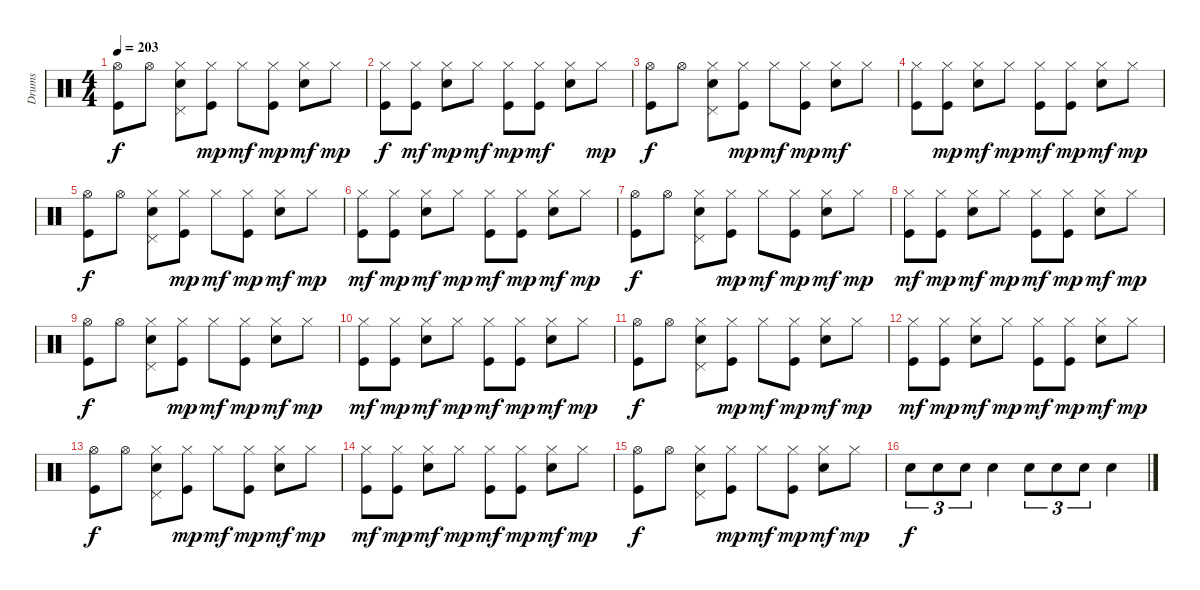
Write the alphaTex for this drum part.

\track ("Drums" "Drums") {instrument percussion}
\staff {score}
\articulation defaults
\ts (4 4)
\tempo 203
\clef neutral
\ks c
("Hi-Hat (open)" "Kick (hit)").8{dy f} "Hi-Hat (open)".8 ("Hi-Hat (closed)" "Pedal Hi-Hat (hit)" "Snare (hit) 2").8 ("Hi-Hat (closed)" "Kick (hit)").8{dy mp} "Hi-Hat (closed)".8{dy mf} ("Hi-Hat (closed)" "Kick (hit)").8{dy mp} ("Hi-Hat (closed)" "Snare (hit) 2").8{dy mf} "Hi-Hat (closed)".8{dy mp} |
("Hi-Hat (closed)" "Kick (hit)").8{dy f} ("Hi-Hat (closed)" "Kick (hit)").8{dy mf} ("Hi-Hat (closed)" "Snare (hit) 2").8{dy mp} "Hi-Hat (closed)".8{dy mf} ("Hi-Hat (closed)" "Kick (hit)").8{dy mp} ("Hi-Hat (closed)" "Kick (hit)").8{dy mf} ("Hi-Hat (closed)" "Snare (hit) 2").8 "Hi-Hat (closed)".8{dy mp} |
("Hi-Hat (open)" "Kick (hit)").8{dy f} "Hi-Hat (open)".8 ("Hi-Hat (closed)" "Pedal Hi-Hat (hit)" "Snare (hit) 2").8 ("Hi-Hat (closed)" "Kick (hit)").8{dy mp} "Hi-Hat (closed)".8{dy mf} ("Hi-Hat (closed)" "Kick (hit)").8{dy mp} ("Hi-Hat (closed)" "Snare (hit) 2").8{dy mf} "Hi-Hat (closed)".8 |
("Hi-Hat (closed)" "Kick (hit)").8 ("Hi-Hat (closed)" "Kick (hit)").8{dy mp} ("Hi-Hat (closed)" "Snare (hit) 2").8{dy mf} "Hi-Hat (closed)".8{dy mp} ("Hi-Hat (closed)" "Kick (hit)").8{dy mf} ("Hi-Hat (closed)" "Kick (hit)").8{dy mp} ("Hi-Hat (closed)" "Snare (hit) 2").8{dy mf} "Hi-Hat (closed)".8{dy mp} |
("Hi-Hat (open)" "Kick (hit)").8{dy f} "Hi-Hat (open)".8 ("Hi-Hat (closed)" "Pedal Hi-Hat (hit)" "Snare (hit) 2").8 ("Hi-Hat (closed)" "Kick (hit)").8{dy mp} "Hi-Hat (closed)".8{dy mf} ("Hi-Hat (closed)" "Kick (hit)").8{dy mp} ("Hi-Hat (closed)" "Snare (hit) 2").8{dy mf} "Hi-Hat (closed)".8{dy mp} |
("Hi-Hat (closed)" "Kick (hit)").8{dy mf} ("Hi-Hat (closed)" "Kick (hit)").8{dy mp} ("Hi-Hat (closed)" "Snare (hit) 2").8{dy mf} "Hi-Hat (closed)".8{dy mp} ("Hi-Hat (closed)" "Kick (hit)").8{dy mf} ("Hi-Hat (closed)" "Kick (hit)").8{dy mp} ("Hi-Hat (closed)" "Snare (hit) 2").8{dy mf} "Hi-Hat (closed)".8{dy mp} |
("Hi-Hat (open)" "Kick (hit)").8{dy f} "Hi-Hat (open)".8 ("Hi-Hat (closed)" "Pedal Hi-Hat (hit)" "Snare (hit) 2").8 ("Hi-Hat (closed)" "Kick (hit)").8{dy mp} "Hi-Hat (closed)".8{dy mf} ("Hi-Hat (closed)" "Kick (hit)").8{dy mp} ("Hi-Hat (closed)" "Snare (hit) 2").8{dy mf} "Hi-Hat (closed)".8{dy mp} |
("Hi-Hat (closed)" "Kick (hit)").8{dy mf} ("Hi-Hat (closed)" "Kick (hit)").8{dy mp} ("Hi-Hat (closed)" "Snare (hit) 2").8{dy mf} "Hi-Hat (closed)".8{dy mp} ("Hi-Hat (closed)" "Kick (hit)").8{dy mf} ("Hi-Hat (closed)" "Kick (hit)").8{dy mp} ("Hi-Hat (closed)" "Snare (hit) 2").8{dy mf} "Hi-Hat (closed)".8{dy mp} |
("Hi-Hat (open)" "Kick (hit)").8{dy f} "Hi-Hat (open)".8 ("Hi-Hat (closed)" "Pedal Hi-Hat (hit)" "Snare (hit) 2").8 ("Hi-Hat (closed)" "Kick (hit)").8{dy mp} "Hi-Hat (closed)".8{dy mf} ("Hi-Hat (closed)" "Kick (hit)").8{dy mp} ("Hi-Hat (closed)" "Snare (hit) 2").8{dy mf} "Hi-Hat (closed)".8{dy mp} |
("Hi-Hat (closed)" "Kick (hit)").8{dy mf} ("Hi-Hat (closed)" "Kick (hit)").8{dy mp} ("Hi-Hat (closed)" "Snare (hit) 2").8{dy mf} "Hi-Hat (closed)".8{dy mp} ("Hi-Hat (closed)" "Kick (hit)").8{dy mf} ("Hi-Hat (closed)" "Kick (hit)").8{dy mp} ("Hi-Hat (closed)" "Snare (hit) 2").8{dy mf} "Hi-Hat (closed)".8{dy mp} |
("Hi-Hat (open)" "Kick (hit)").8{dy f} "Hi-Hat (open)".8 ("Hi-Hat (closed)" "Pedal Hi-Hat (hit)" "Snare (hit) 2").8 ("Hi-Hat (closed)" "Kick (hit)").8{dy mp} "Hi-Hat (closed)".8{dy mf} ("Hi-Hat (closed)" "Kick (hit)").8{dy mp} ("Hi-Hat (closed)" "Snare (hit) 2").8{dy mf} "Hi-Hat (closed)".8{dy mp} |
("Hi-Hat (closed)" "Kick (hit)").8{dy mf} ("Hi-Hat (closed)" "Kick (hit)").8{dy mp} ("Hi-Hat (closed)" "Snare (hit) 2").8{dy mf} "Hi-Hat (closed)".8{dy mp} ("Hi-Hat (closed)" "Kick (hit)").8{dy mf} ("Hi-Hat (closed)" "Kick (hit)").8{dy mp} ("Hi-Hat (closed)" "Snare (hit) 2").8{dy mf} "Hi-Hat (closed)".8{dy mp} |
("Hi-Hat (open)" "Kick (hit)").8{dy f} "Hi-Hat (open)".8 ("Hi-Hat (closed)" "Pedal Hi-Hat (hit)" "Snare (hit) 2").8 ("Hi-Hat (closed)" "Kick (hit)").8{dy mp} "Hi-Hat (closed)".8{dy mf} ("Hi-Hat (closed)" "Kick (hit)").8{dy mp} ("Hi-Hat (closed)" "Snare (hit) 2").8{dy mf} "Hi-Hat (closed)".8{dy mp} |
("Hi-Hat (closed)" "Kick (hit)").8{dy mf} ("Hi-Hat (closed)" "Kick (hit)").8{dy mp} ("Hi-Hat (closed)" "Snare (hit) 2").8{dy mf} "Hi-Hat (closed)".8{dy mp} ("Hi-Hat (closed)" "Kick (hit)").8{dy mf} ("Hi-Hat (closed)" "Kick (hit)").8{dy mp} ("Hi-Hat (closed)" "Snare (hit) 2").8{dy mf} "Hi-Hat (closed)".8{dy mp} |
("Hi-Hat (open)" "Kick (hit)").8{dy f} "Hi-Hat (open)".8 ("Hi-Hat (closed)" "Pedal Hi-Hat (hit)" "Snare (hit) 2").8 ("Hi-Hat (closed)" "Kick (hit)").8{dy mp} "Hi-Hat (closed)".8{dy mf} ("Hi-Hat (closed)" "Kick (hit)").8{dy mp} ("Hi-Hat (closed)" "Snare (hit) 2").8{dy mf} "Hi-Hat (closed)".8{dy mp} |
"Snare (hit) 2".8{tu (3 2) dy f} "Snare (hit) 2".8{tu (3 2)} "Snare (hit) 2".8{tu (3 2)} "Snare (hit) 2".4 "Snare (hit) 2".8{tu (3 2)} "Snare (hit) 2".8{tu (3 2)} "Snare (hit) 2".8{tu (3 2)} "Snare (hit) 2".4
